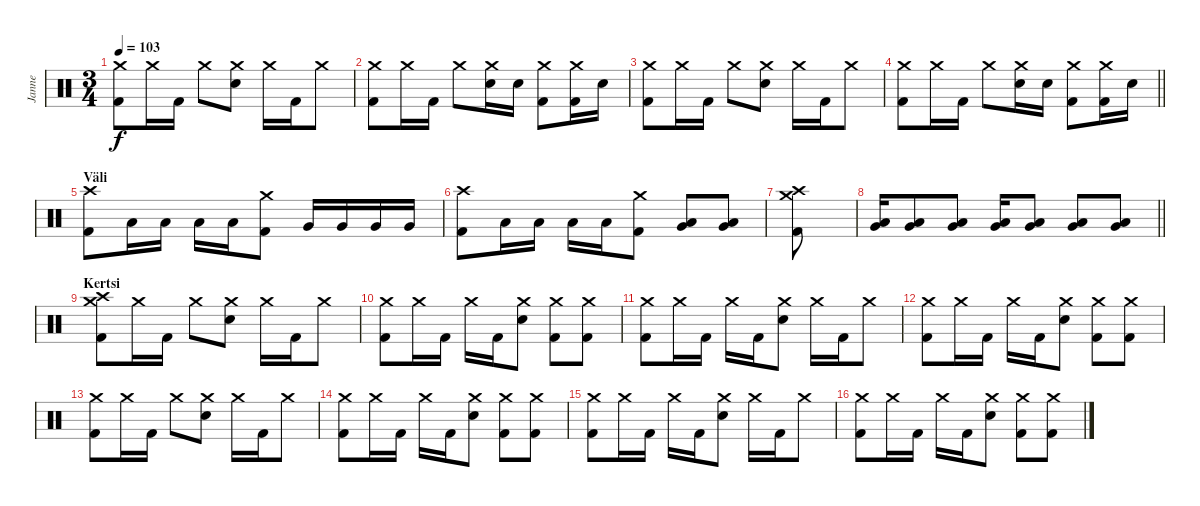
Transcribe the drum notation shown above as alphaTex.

\track ("Janne" "Janne") {instrument percussion}
\staff {score}
\articulation defaults
\ts (3 4)
\tempo 103
\clef neutral
\ks c
("Crash medium (hit)" "Kick (hit) 2").8{dy f} "Crash medium (hit)".16 "Kick (hit) 2".16 "Crash medium (hit)".8 ("Crash medium (hit)" "Electric Snare (hit)").8 "Crash medium (hit)".16 "Kick (hit) 2".16 "Crash medium (hit)".8 |
("Crash medium (hit)" "Kick (hit) 2").8 "Crash medium (hit)".16 "Kick (hit) 2".16 "Crash medium (hit)".8 ("Crash medium (hit)" "Electric Snare (hit)").16 "Electric Snare (hit)".16 ("Crash medium (hit)" "Kick (hit) 2").8 ("Crash medium (hit)" "Kick (hit) 2").16 "Electric Snare (hit)".16 |
("Crash medium (hit)" "Kick (hit) 2").8 "Crash medium (hit)".16 "Kick (hit) 2".16 "Crash medium (hit)".8 ("Crash medium (hit)" "Electric Snare (hit)").8 "Crash medium (hit)".16 "Kick (hit) 2".16 "Crash medium (hit)".8 |
\barLineRight lightlight
("Crash medium (hit)" "Kick (hit) 2").8 "Crash medium (hit)".16 "Kick (hit) 2".16 "Crash medium (hit)".8 ("Crash medium (hit)" "Electric Snare (hit)").16 "Electric Snare (hit)".16 ("Crash medium (hit)" "Kick (hit) 2").8 ("Crash medium (hit)" "Kick (hit) 2").16 "Electric Snare (hit)".16 |
\section ("" "Väli")
("Crash high (hit)" "Kick (hit) 2").8 "Low Tom (hit)".16 "Low Tom (hit)".16 "Low Tom (hit)".16 "Low Tom (hit)".16 ("Crash medium (hit)" "Kick (hit) 2").8 "Very Low Tom (hit)".16 "Very Low Tom (hit)".16 "Very Low Tom (hit)".16 "Very Low Tom (hit)".16 |
("Crash high (hit)" "Kick (hit) 2").8 "Low Floor Tom (hit)".16 "Low Floor Tom (hit)".16 "Low Floor Tom (hit)".16 "Low Floor Tom (hit)".16 ("Crash medium (hit)" "Kick (hit) 2").8 ("Low Tom (hit)" "Very Low Tom (hit)").8 ("Very Low Tom (hit)" "Low Floor Tom (hit)").8 |
("Crash high (hit)" "Crash medium (hit)" "Kick (hit) 2").8 |
\barLineRight lightlight
("Low Tom (hit)" "Very Low Tom (hit)").16 ("Low Tom (hit)" "Very Low Tom (hit)").8 ("Low Tom (hit)" "Very Low Tom (hit)").8 ("Low Tom (hit)" "Very Low Tom (hit)").16 ("Low Tom (hit)" "Very Low Tom (hit)").8 ("Very Low Tom (hit)" "Low Floor Tom (hit)").8 ("Very Low Tom (hit)" "Low Floor Tom (hit)").8 |
\section ("" "Kertsi")
("Crash high (hit)" "Crash medium (hit)" "Kick (hit) 2").8 "Crash medium (hit)".16 "Kick (hit) 2".16 "Crash medium (hit)".8 ("Crash medium (hit)" "Electric Snare (hit)").8 "Crash medium (hit)".16 "Kick (hit) 2".16 "Crash medium (hit)".8 |
("Crash medium (hit)" "Kick (hit) 2").8 "Crash medium (hit)".16 "Kick (hit) 2".16 "Crash medium (hit)".16 "Kick (hit) 2".16 ("Crash medium (hit)" "Electric Snare (hit)").8 ("Crash medium (hit)" "Kick (hit) 2").8 ("Crash medium (hit)" "Kick (hit) 2").8 |
("Crash medium (hit)" "Kick (hit) 2").8 "Crash medium (hit)".16 "Kick (hit) 2".16 "Crash medium (hit)".16 "Kick (hit) 2".16 ("Crash medium (hit)" "Electric Snare (hit)").8 "Crash medium (hit)".16 "Kick (hit) 2".16 "Crash medium (hit)".8 |
("Crash medium (hit)" "Kick (hit) 2").8 "Crash medium (hit)".16 "Kick (hit) 2".16 "Crash medium (hit)".16 "Kick (hit) 2".16 ("Crash medium (hit)" "Electric Snare (hit)").8 ("Crash medium (hit)" "Kick (hit) 2").8 ("Crash medium (hit)" "Kick (hit) 2").8 |
("Crash medium (hit)" "Kick (hit) 2").8 "Crash medium (hit)".16 "Kick (hit) 2".16 "Crash medium (hit)".8 ("Crash medium (hit)" "Electric Snare (hit)").8 "Crash medium (hit)".16 "Kick (hit) 2".16 "Crash medium (hit)".8 |
("Crash medium (hit)" "Kick (hit) 2").8 "Crash medium (hit)".16 "Kick (hit) 2".16 "Crash medium (hit)".16 "Kick (hit) 2".16 ("Crash medium (hit)" "Electric Snare (hit)").8 ("Crash medium (hit)" "Kick (hit) 2").8 ("Crash medium (hit)" "Kick (hit) 2").8 |
("Crash medium (hit)" "Kick (hit) 2").8 "Crash medium (hit)".16 "Kick (hit) 2".16 "Crash medium (hit)".16 "Kick (hit) 2".16 ("Crash medium (hit)" "Electric Snare (hit)").8 "Crash medium (hit)".16 "Kick (hit) 2".16 "Crash medium (hit)".8 |
("Crash medium (hit)" "Kick (hit) 2").8 "Crash medium (hit)".16 "Kick (hit) 2".16 "Crash medium (hit)".16 "Kick (hit) 2".16 ("Crash medium (hit)" "Electric Snare (hit)").8 ("Crash medium (hit)" "Kick (hit) 2").8 ("Crash medium (hit)" "Kick (hit) 2").8
